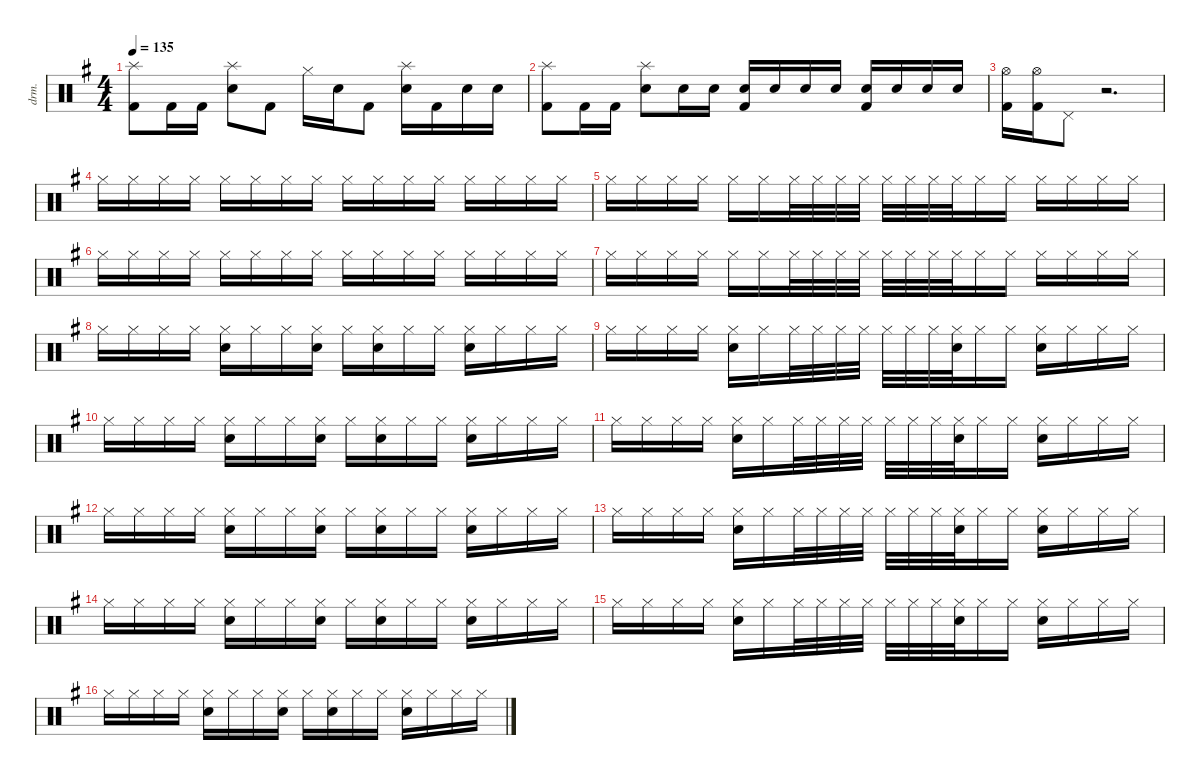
\defaultSystemsLayout 4
\hideDynamics
\bracketExtendMode nobrackets
\track ("榧" "drm.") {instrument percussion}
\staff {score}
\articulation defaults
\ts (4 4)
\tempo 135
\clef neutral
\ks eminor
("Kick (hit) 2"{acc forcenatural} "Splash (hit)"{acc forcenatural}).8{dy mf beam Down} "Kick (hit) 2"{acc forcenatural}.16{beam Down} "Kick (hit) 2"{acc forcenatural}.16{beam Down} ("Splash (hit)"{acc forcenatural} "Snare (hit) 2"{acc forcenatural}).8{beam Down} "Kick (hit) 2"{acc forcenatural}.8{beam Down} "Hi-Hat (closed)"{acc forcenatural}.16{beam Down} "Snare (hit) 2"{acc forcenatural}.16{beam Down} "Kick (hit) 2"{acc forcenatural}.8{beam Down} ("Splash (hit)"{acc forcenatural} "Snare (hit) 2"{acc forcenatural}).16{beam Down} "Kick (hit) 2"{acc forcenatural}.16{beam Down} "Snare (hit) 2"{acc forcenatural}.16{beam Down} "Snare (hit) 2"{acc forcenatural}.16{beam Down} |
("Kick (hit) 2"{acc forcenatural} "Splash (hit)"{acc forcenatural}).8{beam Down} "Kick (hit) 2"{acc forcenatural}.16{beam Down} "Kick (hit) 2"{acc forcenatural}.16{beam Down} ("Splash (hit)"{acc forcenatural} "Snare (hit) 2"{acc forcenatural}).8{beam Down} "Snare (hit) 2"{acc forcenatural}.16{beam Down} "Snare (hit) 2"{acc forcenatural}.16{beam Down} ("Snare (hit) 2"{acc forcenatural} "Kick (hit) 2"{acc forcenatural}).16{beam Up} "Snare (hit) 2"{acc forcenatural}.16{beam Up} "Snare (hit) 2"{acc forcenatural}.16{beam Up} "Snare (hit) 2"{acc forcenatural}.16{beam Up} ("Snare (hit) 2"{acc forcenatural} "Kick (hit) 2"{acc forcenatural}).16{beam Up} "Snare (hit) 2"{acc forcenatural}.16{beam Up} "Snare (hit) 2"{acc forcenatural}.16{beam Up} "Snare (hit) 2"{acc forcenatural}.16{beam Up} |
("Kick (hit) 2"{acc forcenatural} "Hi-Hat (open)"{acc forcenatural}).16{beam Down} ("Hi-Hat (open)"{acc forcenatural} "Kick (hit) 2"{acc forcenatural}).16{beam Down} "Pedal Hi-Hat (hit)"{acc forcenatural}.8{beam Down} r.2{d beam Down} |
"Hi-Hat (closed)"{acc forcenatural}.16{beam Down} "Hi-Hat (closed)"{acc forcenatural}.16{beam Down} "Hi-Hat (closed)"{acc forcenatural}.16{beam Down} "Hi-Hat (closed)"{acc forcenatural}.16{beam Down} "Hi-Hat (closed)"{acc forcenatural}.16{beam Down} "Hi-Hat (closed)"{acc forcenatural}.16{beam Down} "Hi-Hat (closed)"{acc forcenatural}.16{beam Down} "Hi-Hat (closed)"{acc forcenatural}.16{beam Down} "Hi-Hat (closed)"{acc forcenatural}.16{beam Down} "Hi-Hat (closed)"{acc forcenatural}.16{beam Down} "Hi-Hat (closed)"{acc forcenatural}.16{beam Down} "Hi-Hat (closed)"{acc forcenatural}.16{beam Down} "Hi-Hat (closed)"{acc forcenatural}.16{beam Down} "Hi-Hat (closed)"{acc forcenatural}.16{beam Down} "Hi-Hat (closed)"{acc forcenatural}.16{beam Down} "Hi-Hat (closed)"{acc forcenatural}.16{beam Down} |
"Hi-Hat (closed)"{acc forcenatural}.16{beam Down} "Hi-Hat (closed)"{acc forcenatural}.16{beam Down} "Hi-Hat (closed)"{acc forcenatural}.16{beam Down} "Hi-Hat (closed)"{acc forcenatural}.16{beam Down} "Hi-Hat (closed)"{acc forcenatural}.16{beam Down} "Hi-Hat (closed)"{acc forcenatural}.16{beam Down} "Hi-Hat (closed)"{acc forcenatural}.32{beam Down} "Hi-Hat (closed)"{acc forcenatural}.32{beam Down} "Hi-Hat (closed)"{acc forcenatural}.32{beam Down} "Hi-Hat (closed)"{acc forcenatural}.32{beam Down} "Hi-Hat (closed)"{acc forcenatural}.32{beam Down} "Hi-Hat (closed)"{acc forcenatural}.32{beam Down} "Hi-Hat (closed)"{acc forcenatural}.32{beam Down} "Hi-Hat (closed)"{acc forcenatural}.32{beam Down} "Hi-Hat (closed)"{acc forcenatural}.16{beam Down} "Hi-Hat (closed)"{acc forcenatural}.16{beam Down} "Hi-Hat (closed)"{acc forcenatural}.16{beam Down} "Hi-Hat (closed)"{acc forcenatural}.16{beam Down} "Hi-Hat (closed)"{acc forcenatural}.16{beam Down} "Hi-Hat (closed)"{acc forcenatural}.16{beam Down} |
"Hi-Hat (closed)"{acc forcenatural}.16{beam Down} "Hi-Hat (closed)"{acc forcenatural}.16{beam Down} "Hi-Hat (closed)"{acc forcenatural}.16{beam Down} "Hi-Hat (closed)"{acc forcenatural}.16{beam Down} "Hi-Hat (closed)"{acc forcenatural}.16{beam Down} "Hi-Hat (closed)"{acc forcenatural}.16{beam Down} "Hi-Hat (closed)"{acc forcenatural}.16{beam Down} "Hi-Hat (closed)"{acc forcenatural}.16{beam Down} "Hi-Hat (closed)"{acc forcenatural}.16{beam Down} "Hi-Hat (closed)"{acc forcenatural}.16{beam Down} "Hi-Hat (closed)"{acc forcenatural}.16{beam Down} "Hi-Hat (closed)"{acc forcenatural}.16{beam Down} "Hi-Hat (closed)"{acc forcenatural}.16{beam Down} "Hi-Hat (closed)"{acc forcenatural}.16{beam Down} "Hi-Hat (closed)"{acc forcenatural}.16{beam Down} "Hi-Hat (closed)"{acc forcenatural}.16{beam Down} |
"Hi-Hat (closed)"{acc forcenatural}.16{beam Down} "Hi-Hat (closed)"{acc forcenatural}.16{beam Down} "Hi-Hat (closed)"{acc forcenatural}.16{beam Down} "Hi-Hat (closed)"{acc forcenatural}.16{beam Down} "Hi-Hat (closed)"{acc forcenatural}.16{beam Down} "Hi-Hat (closed)"{acc forcenatural}.16{beam Down} "Hi-Hat (closed)"{acc forcenatural}.32{beam Down} "Hi-Hat (closed)"{acc forcenatural}.32{beam Down} "Hi-Hat (closed)"{acc forcenatural}.32{beam Down} "Hi-Hat (closed)"{acc forcenatural}.32{beam Down} "Hi-Hat (closed)"{acc forcenatural}.32{beam Down} "Hi-Hat (closed)"{acc forcenatural}.32{beam Down} "Hi-Hat (closed)"{acc forcenatural}.32{beam Down} "Hi-Hat (closed)"{acc forcenatural}.32{beam Down} "Hi-Hat (closed)"{acc forcenatural}.16{beam Down} "Hi-Hat (closed)"{acc forcenatural}.16{beam Down} "Hi-Hat (closed)"{acc forcenatural}.16{beam Down} "Hi-Hat (closed)"{acc forcenatural}.16{beam Down} "Hi-Hat (closed)"{acc forcenatural}.16{beam Down} "Hi-Hat (closed)"{acc forcenatural}.16{beam Down} |
"Hi-Hat (closed)"{acc forcenatural}.16{beam Down} "Hi-Hat (closed)"{acc forcenatural}.16{beam Down} "Hi-Hat (closed)"{acc forcenatural}.16{beam Down} "Hi-Hat (closed)"{acc forcenatural}.16{beam Down} ("Hi-Hat (closed)"{acc forcenatural} "Snare (hit) 2"{acc forcenatural}).16{beam Down} "Hi-Hat (closed)"{acc forcenatural}.16{beam Down} "Hi-Hat (closed)"{acc forcenatural}.16{beam Down} ("Hi-Hat (closed)"{acc forcenatural} "Snare (hit) 2"{acc forcenatural}).16{beam Down} "Hi-Hat (closed)"{acc forcenatural}.16{beam Down} ("Hi-Hat (closed)"{acc forcenatural} "Snare (hit) 2"{acc forcenatural}).16{beam Down} "Hi-Hat (closed)"{acc forcenatural}.16{beam Down} "Hi-Hat (closed)"{acc forcenatural}.16{beam Down} ("Hi-Hat (closed)"{acc forcenatural} "Snare (hit) 2"{acc forcenatural}).16{beam Down} "Hi-Hat (closed)"{acc forcenatural}.16{beam Down} "Hi-Hat (closed)"{acc forcenatural}.16{beam Down} "Hi-Hat (closed)"{acc forcenatural}.16{beam Down} |
"Hi-Hat (closed)"{acc forcenatural}.16{beam Down} "Hi-Hat (closed)"{acc forcenatural}.16{beam Down} "Hi-Hat (closed)"{acc forcenatural}.16{beam Down} "Hi-Hat (closed)"{acc forcenatural}.16{beam Down} ("Hi-Hat (closed)"{acc forcenatural} "Snare (hit) 2"{acc forcenatural}).16{beam Down} "Hi-Hat (closed)"{acc forcenatural}.16{beam Down} "Hi-Hat (closed)"{acc forcenatural}.32{beam Down} "Hi-Hat (closed)"{acc forcenatural}.32{beam Down} "Hi-Hat (closed)"{acc forcenatural}.32{beam Down} "Hi-Hat (closed)"{acc forcenatural}.32{beam Down} "Hi-Hat (closed)"{acc forcenatural}.32{beam Down} "Hi-Hat (closed)"{acc forcenatural}.32{beam Down} "Hi-Hat (closed)"{acc forcenatural}.32{beam Down} ("Hi-Hat (closed)"{acc forcenatural} "Snare (hit) 2"{acc forcenatural}).32{beam Down} "Hi-Hat (closed)"{acc forcenatural}.16{beam Down} "Hi-Hat (closed)"{acc forcenatural}.16{beam Down} ("Hi-Hat (closed)"{acc forcenatural} "Snare (hit) 2"{acc forcenatural}).16{beam Down} "Hi-Hat (closed)"{acc forcenatural}.16{beam Down} "Hi-Hat (closed)"{acc forcenatural}.16{beam Down} "Hi-Hat (closed)"{acc forcenatural}.16{beam Down} |
"Hi-Hat (closed)"{acc forcenatural}.16{beam Down} "Hi-Hat (closed)"{acc forcenatural}.16{beam Down} "Hi-Hat (closed)"{acc forcenatural}.16{beam Down} "Hi-Hat (closed)"{acc forcenatural}.16{beam Down} ("Hi-Hat (closed)"{acc forcenatural} "Snare (hit) 2"{acc forcenatural}).16{beam Down} "Hi-Hat (closed)"{acc forcenatural}.16{beam Down} "Hi-Hat (closed)"{acc forcenatural}.16{beam Down} ("Hi-Hat (closed)"{acc forcenatural} "Snare (hit) 2"{acc forcenatural}).16{beam Down} "Hi-Hat (closed)"{acc forcenatural}.16{beam Down} ("Hi-Hat (closed)"{acc forcenatural} "Snare (hit) 2"{acc forcenatural}).16{beam Down} "Hi-Hat (closed)"{acc forcenatural}.16{beam Down} "Hi-Hat (closed)"{acc forcenatural}.16{beam Down} ("Hi-Hat (closed)"{acc forcenatural} "Snare (hit) 2"{acc forcenatural}).16{beam Down} "Hi-Hat (closed)"{acc forcenatural}.16{beam Down} "Hi-Hat (closed)"{acc forcenatural}.16{beam Down} "Hi-Hat (closed)"{acc forcenatural}.16{beam Down} |
"Hi-Hat (closed)"{acc forcenatural}.16{beam Down} "Hi-Hat (closed)"{acc forcenatural}.16{beam Down} "Hi-Hat (closed)"{acc forcenatural}.16{beam Down} "Hi-Hat (closed)"{acc forcenatural}.16{beam Down} ("Hi-Hat (closed)"{acc forcenatural} "Snare (hit) 2"{acc forcenatural}).16{beam Down} "Hi-Hat (closed)"{acc forcenatural}.16{beam Down} "Hi-Hat (closed)"{acc forcenatural}.32{beam Down} "Hi-Hat (closed)"{acc forcenatural}.32{beam Down} "Hi-Hat (closed)"{acc forcenatural}.32{beam Down} "Hi-Hat (closed)"{acc forcenatural}.32{beam Down} "Hi-Hat (closed)"{acc forcenatural}.32{beam Down} "Hi-Hat (closed)"{acc forcenatural}.32{beam Down} "Hi-Hat (closed)"{acc forcenatural}.32{beam Down} ("Hi-Hat (closed)"{acc forcenatural} "Snare (hit) 2"{acc forcenatural}).32{beam Down} "Hi-Hat (closed)"{acc forcenatural}.16{beam Down} "Hi-Hat (closed)"{acc forcenatural}.16{beam Down} ("Hi-Hat (closed)"{acc forcenatural} "Snare (hit) 2"{acc forcenatural}).16{beam Down} "Hi-Hat (closed)"{acc forcenatural}.16{beam Down} "Hi-Hat (closed)"{acc forcenatural}.16{beam Down} "Hi-Hat (closed)"{acc forcenatural}.16{beam Down} |
"Hi-Hat (closed)"{acc forcenatural}.16{beam Down} "Hi-Hat (closed)"{acc forcenatural}.16{beam Down} "Hi-Hat (closed)"{acc forcenatural}.16{beam Down} "Hi-Hat (closed)"{acc forcenatural}.16{beam Down} ("Hi-Hat (closed)"{acc forcenatural} "Snare (hit) 2"{acc forcenatural}).16{beam Down} "Hi-Hat (closed)"{acc forcenatural}.16{beam Down} "Hi-Hat (closed)"{acc forcenatural}.16{beam Down} ("Hi-Hat (closed)"{acc forcenatural} "Snare (hit) 2"{acc forcenatural}).16{beam Down} "Hi-Hat (closed)"{acc forcenatural}.16{beam Down} ("Hi-Hat (closed)"{acc forcenatural} "Snare (hit) 2"{acc forcenatural}).16{beam Down} "Hi-Hat (closed)"{acc forcenatural}.16{beam Down} "Hi-Hat (closed)"{acc forcenatural}.16{beam Down} ("Hi-Hat (closed)"{acc forcenatural} "Snare (hit) 2"{acc forcenatural}).16{beam Down} "Hi-Hat (closed)"{acc forcenatural}.16{beam Down} "Hi-Hat (closed)"{acc forcenatural}.16{beam Down} "Hi-Hat (closed)"{acc forcenatural}.16{beam Down} |
"Hi-Hat (closed)"{acc forcenatural}.16{beam Down} "Hi-Hat (closed)"{acc forcenatural}.16{beam Down} "Hi-Hat (closed)"{acc forcenatural}.16{beam Down} "Hi-Hat (closed)"{acc forcenatural}.16{beam Down} ("Hi-Hat (closed)"{acc forcenatural} "Snare (hit) 2"{acc forcenatural}).16{beam Down} "Hi-Hat (closed)"{acc forcenatural}.16{beam Down} "Hi-Hat (closed)"{acc forcenatural}.32{beam Down} "Hi-Hat (closed)"{acc forcenatural}.32{beam Down} "Hi-Hat (closed)"{acc forcenatural}.32{beam Down} "Hi-Hat (closed)"{acc forcenatural}.32{beam Down} "Hi-Hat (closed)"{acc forcenatural}.32{beam Down} "Hi-Hat (closed)"{acc forcenatural}.32{beam Down} "Hi-Hat (closed)"{acc forcenatural}.32{beam Down} ("Hi-Hat (closed)"{acc forcenatural} "Snare (hit) 2"{acc forcenatural}).32{beam Down} "Hi-Hat (closed)"{acc forcenatural}.16{beam Down} "Hi-Hat (closed)"{acc forcenatural}.16{beam Down} ("Hi-Hat (closed)"{acc forcenatural} "Snare (hit) 2"{acc forcenatural}).16{beam Down} "Hi-Hat (closed)"{acc forcenatural}.16{beam Down} "Hi-Hat (closed)"{acc forcenatural}.16{beam Down} "Hi-Hat (closed)"{acc forcenatural}.16{beam Down} |
"Hi-Hat (closed)"{acc forcenatural}.16{beam Down} "Hi-Hat (closed)"{acc forcenatural}.16{beam Down} "Hi-Hat (closed)"{acc forcenatural}.16{beam Down} "Hi-Hat (closed)"{acc forcenatural}.16{beam Down} ("Hi-Hat (closed)"{acc forcenatural} "Snare (hit) 2"{acc forcenatural}).16{beam Down} "Hi-Hat (closed)"{acc forcenatural}.16{beam Down} "Hi-Hat (closed)"{acc forcenatural}.16{beam Down} ("Hi-Hat (closed)"{acc forcenatural} "Snare (hit) 2"{acc forcenatural}).16{beam Down} "Hi-Hat (closed)"{acc forcenatural}.16{beam Down} ("Hi-Hat (closed)"{acc forcenatural} "Snare (hit) 2"{acc forcenatural}).16{beam Down} "Hi-Hat (closed)"{acc forcenatural}.16{beam Down} "Hi-Hat (closed)"{acc forcenatural}.16{beam Down} ("Hi-Hat (closed)"{acc forcenatural} "Snare (hit) 2"{acc forcenatural}).16{beam Down} "Hi-Hat (closed)"{acc forcenatural}.16{beam Down} "Hi-Hat (closed)"{acc forcenatural}.16{beam Down} "Hi-Hat (closed)"{acc forcenatural}.16{beam Down} |
"Hi-Hat (closed)"{acc forcenatural}.16{beam Down} "Hi-Hat (closed)"{acc forcenatural}.16{beam Down} "Hi-Hat (closed)"{acc forcenatural}.16{beam Down} "Hi-Hat (closed)"{acc forcenatural}.16{beam Down} ("Hi-Hat (closed)"{acc forcenatural} "Snare (hit) 2"{acc forcenatural}).16{beam Down} "Hi-Hat (closed)"{acc forcenatural}.16{beam Down} "Hi-Hat (closed)"{acc forcenatural}.32{beam Down} "Hi-Hat (closed)"{acc forcenatural}.32{beam Down} "Hi-Hat (closed)"{acc forcenatural}.32{beam Down} "Hi-Hat (closed)"{acc forcenatural}.32{beam Down} "Hi-Hat (closed)"{acc forcenatural}.32{beam Down} "Hi-Hat (closed)"{acc forcenatural}.32{beam Down} "Hi-Hat (closed)"{acc forcenatural}.32{beam Down} ("Hi-Hat (closed)"{acc forcenatural} "Snare (hit) 2"{acc forcenatural}).32{beam Down} "Hi-Hat (closed)"{acc forcenatural}.16{beam Down} "Hi-Hat (closed)"{acc forcenatural}.16{beam Down} ("Hi-Hat (closed)"{acc forcenatural} "Snare (hit) 2"{acc forcenatural}).16{beam Down} "Hi-Hat (closed)"{acc forcenatural}.16{beam Down} "Hi-Hat (closed)"{acc forcenatural}.16{beam Down} "Hi-Hat (closed)"{acc forcenatural}.16{beam Down} |
"Hi-Hat (closed)"{acc forcenatural}.16{beam Down} "Hi-Hat (closed)"{acc forcenatural}.16{beam Down} "Hi-Hat (closed)"{acc forcenatural}.16{beam Down} "Hi-Hat (closed)"{acc forcenatural}.16{beam Down} ("Hi-Hat (closed)"{acc forcenatural} "Snare (hit) 2"{acc forcenatural}).16{beam Down} "Hi-Hat (closed)"{acc forcenatural}.16{beam Down} "Hi-Hat (closed)"{acc forcenatural}.16{beam Down} ("Hi-Hat (closed)"{acc forcenatural} "Snare (hit) 2"{acc forcenatural}).16{beam Down} "Hi-Hat (closed)"{acc forcenatural}.16{beam Down} ("Hi-Hat (closed)"{acc forcenatural} "Snare (hit) 2"{acc forcenatural}).16{beam Down} "Hi-Hat (closed)"{acc forcenatural}.16{beam Down} "Hi-Hat (closed)"{acc forcenatural}.16{beam Down} ("Hi-Hat (closed)"{acc forcenatural} "Snare (hit) 2"{acc forcenatural}).16{beam Down} "Hi-Hat (closed)"{acc forcenatural}.16{beam Down} "Hi-Hat (closed)"{acc forcenatural}.16{beam Down} "Hi-Hat (closed)"{acc forcenatural}.16{beam Down}
